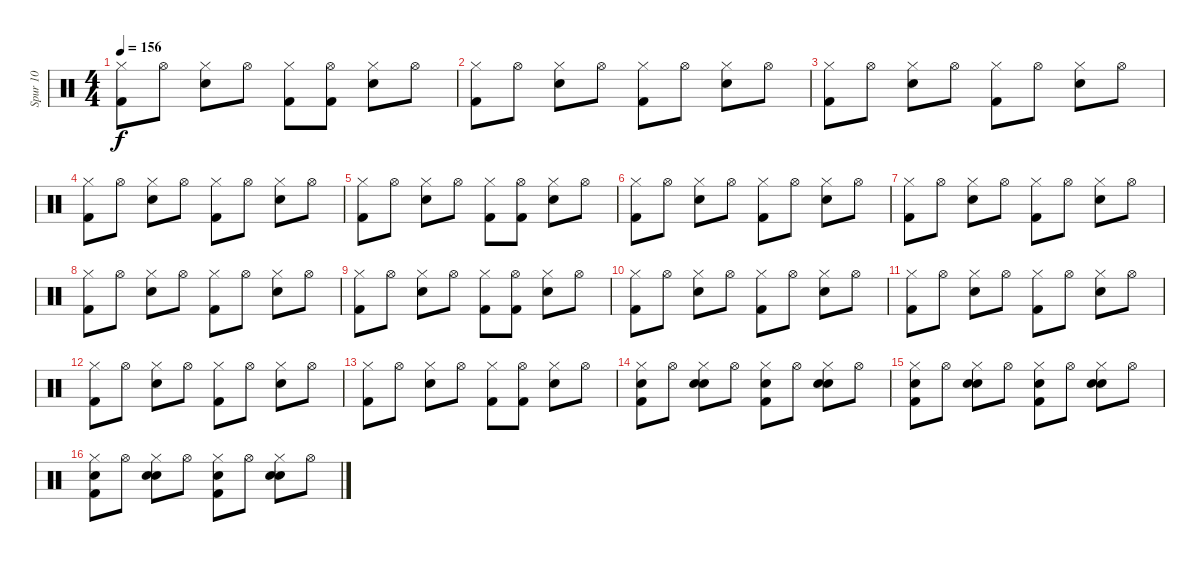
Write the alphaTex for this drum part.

\track ("Spur 10" "Spur 10") {instrument percussion}
\staff {score}
\articulation defaults
\ts (4 4)
\tempo 156
\clef neutral
\ks c
("Hi-Hat (closed)" "Kick (hit) 2").8{dy f} "Hi-Hat (open)".8 ("Hi-Hat (closed)" "Electric Snare (hit)").8 "Hi-Hat (open)".8 ("Hi-Hat (closed)" "Kick (hit) 2").8 ("Hi-Hat (open)" "Kick (hit) 2").8 ("Hi-Hat (closed)" "Electric Snare (hit)").8 "Hi-Hat (open)".8 |
("Hi-Hat (closed)" "Kick (hit) 2").8 "Hi-Hat (open)".8 ("Hi-Hat (closed)" "Electric Snare (hit)").8 "Hi-Hat (open)".8 ("Hi-Hat (closed)" "Kick (hit) 2").8 "Hi-Hat (open)".8 ("Hi-Hat (closed)" "Electric Snare (hit)").8 "Hi-Hat (open)".8 |
("Hi-Hat (closed)" "Kick (hit) 2").8 "Hi-Hat (open)".8 ("Hi-Hat (closed)" "Electric Snare (hit)").8 "Hi-Hat (open)".8 ("Hi-Hat (closed)" "Kick (hit) 2").8 "Hi-Hat (open)".8 ("Hi-Hat (closed)" "Electric Snare (hit)").8 "Hi-Hat (open)".8 |
("Hi-Hat (closed)" "Kick (hit) 2").8 "Hi-Hat (open)".8 ("Hi-Hat (closed)" "Electric Snare (hit)").8 "Hi-Hat (open)".8 ("Hi-Hat (closed)" "Kick (hit) 2").8 "Hi-Hat (open)".8 ("Hi-Hat (closed)" "Electric Snare (hit)").8 "Hi-Hat (open)".8 |
("Hi-Hat (closed)" "Kick (hit) 2").8 "Hi-Hat (open)".8 ("Hi-Hat (closed)" "Electric Snare (hit)").8 "Hi-Hat (open)".8 ("Hi-Hat (closed)" "Kick (hit) 2").8 ("Hi-Hat (open)" "Kick (hit) 2").8 ("Hi-Hat (closed)" "Electric Snare (hit)").8 "Hi-Hat (open)".8 |
("Hi-Hat (closed)" "Kick (hit) 2").8 "Hi-Hat (open)".8 ("Hi-Hat (closed)" "Electric Snare (hit)").8 "Hi-Hat (open)".8 ("Hi-Hat (closed)" "Kick (hit) 2").8 "Hi-Hat (open)".8 ("Hi-Hat (closed)" "Electric Snare (hit)").8 "Hi-Hat (open)".8 |
("Hi-Hat (closed)" "Kick (hit) 2").8 "Hi-Hat (open)".8 ("Hi-Hat (closed)" "Electric Snare (hit)").8 "Hi-Hat (open)".8 ("Hi-Hat (closed)" "Kick (hit) 2").8 "Hi-Hat (open)".8 ("Hi-Hat (closed)" "Electric Snare (hit)").8 "Hi-Hat (open)".8 |
("Hi-Hat (closed)" "Kick (hit) 2").8 "Hi-Hat (open)".8 ("Hi-Hat (closed)" "Electric Snare (hit)").8 "Hi-Hat (open)".8 ("Hi-Hat (closed)" "Kick (hit) 2").8 "Hi-Hat (open)".8 ("Hi-Hat (closed)" "Electric Snare (hit)").8 "Hi-Hat (open)".8 |
("Hi-Hat (closed)" "Kick (hit) 2").8 "Hi-Hat (open)".8 ("Hi-Hat (closed)" "Electric Snare (hit)").8 "Hi-Hat (open)".8 ("Hi-Hat (closed)" "Kick (hit) 2").8 ("Hi-Hat (open)" "Kick (hit) 2").8 ("Hi-Hat (closed)" "Electric Snare (hit)").8 "Hi-Hat (open)".8 |
("Hi-Hat (closed)" "Kick (hit) 2").8 "Hi-Hat (open)".8 ("Hi-Hat (closed)" "Electric Snare (hit)").8 "Hi-Hat (open)".8 ("Hi-Hat (closed)" "Kick (hit) 2").8 "Hi-Hat (open)".8 ("Hi-Hat (closed)" "Electric Snare (hit)").8 "Hi-Hat (open)".8 |
("Hi-Hat (closed)" "Kick (hit) 2").8 "Hi-Hat (open)".8 ("Hi-Hat (closed)" "Electric Snare (hit)").8 "Hi-Hat (open)".8 ("Hi-Hat (closed)" "Kick (hit) 2").8 "Hi-Hat (open)".8 ("Hi-Hat (closed)" "Electric Snare (hit)").8 "Hi-Hat (open)".8 |
("Hi-Hat (closed)" "Kick (hit) 2").8 "Hi-Hat (open)".8 ("Hi-Hat (closed)" "Electric Snare (hit)").8 "Hi-Hat (open)".8 ("Hi-Hat (closed)" "Kick (hit) 2").8 "Hi-Hat (open)".8 ("Hi-Hat (closed)" "Electric Snare (hit)").8 "Hi-Hat (open)".8 |
("Hi-Hat (closed)" "Kick (hit) 2").8 "Hi-Hat (open)".8 ("Hi-Hat (closed)" "Electric Snare (hit)").8 "Hi-Hat (open)".8 ("Hi-Hat (closed)" "Kick (hit) 2").8 ("Hi-Hat (open)" "Kick (hit) 2").8 ("Hi-Hat (closed)" "Electric Snare (hit)").8 "Hi-Hat (open)".8 |
("Hi-Hat (closed)" "Kick (hit) 2" "Hand Clap (hit)").8 "Hi-Hat (open)".8 ("Hi-Hat (closed)" "Electric Snare (hit)" "Hand Clap (hit)").8 "Hi-Hat (open)".8 ("Hi-Hat (closed)" "Kick (hit) 2" "Hand Clap (hit)").8 "Hi-Hat (open)".8 ("Hi-Hat (closed)" "Electric Snare (hit)" "Hand Clap (hit)").8 "Hi-Hat (open)".8 |
("Hi-Hat (closed)" "Kick (hit) 2" "Hand Clap (hit)").8 "Hi-Hat (open)".8 ("Hi-Hat (closed)" "Electric Snare (hit)" "Hand Clap (hit)").8 "Hi-Hat (open)".8 ("Hi-Hat (closed)" "Kick (hit) 2" "Hand Clap (hit)").8 "Hi-Hat (open)".8 ("Hi-Hat (closed)" "Electric Snare (hit)" "Hand Clap (hit)").8 "Hi-Hat (open)".8 |
("Hi-Hat (closed)" "Kick (hit) 2" "Hand Clap (hit)").8 "Hi-Hat (open)".8 ("Hi-Hat (closed)" "Electric Snare (hit)" "Hand Clap (hit)").8 "Hi-Hat (open)".8 ("Hi-Hat (closed)" "Kick (hit) 2" "Hand Clap (hit)").8 "Hi-Hat (open)".8 ("Hi-Hat (closed)" "Electric Snare (hit)" "Hand Clap (hit)").8 "Hi-Hat (open)".8
